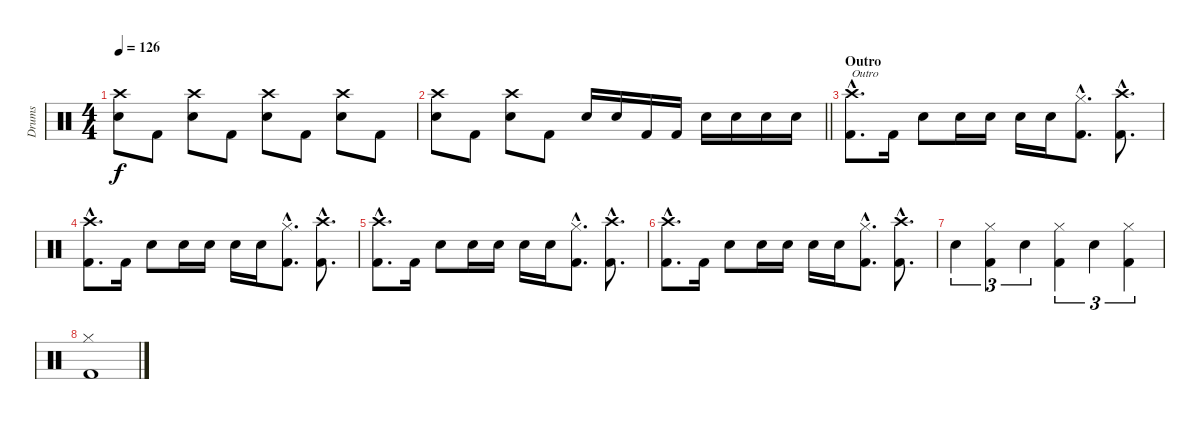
\track ("Drums" "Drums") {instrument percussion}
\staff {score}
\articulation defaults
\ts (4 4)
\tempo 126
\clef neutral
\ks c
("Crash high (hit)" "Electric Snare (hit)").8{dy f} "Kick (hit) 2".8 ("Crash high (hit)" "Electric Snare (hit)").8 "Kick (hit) 2".8 ("Crash high (hit)" "Electric Snare (hit)").8 "Kick (hit) 2".8 ("Crash high (hit)" "Electric Snare (hit)").8 "Kick (hit) 2".8 |
\barLineRight lightlight
("Crash high (hit)" "Electric Snare (hit)").8 "Kick (hit) 2".8 ("Crash high (hit)" "Electric Snare (hit)").8 "Kick (hit) 2".8 "Electric Snare (hit)".16 "Electric Snare (hit)".16 "Kick (hit) 2".16 "Kick (hit) 2".16 "Electric Snare (hit)".16 "Electric Snare (hit)".16 "Electric Snare (hit)".16 "Electric Snare (hit)".16 |
\section ("" "Outro")
("Crash high (hit)"{hac} "Kick (hit) 2"{hac}).8{d txt "Outro"} "Kick (hit) 2".16 "Electric Snare (hit)".8 "Electric Snare (hit)".16 "Electric Snare (hit)".16 "Electric Snare (hit)".16 "Electric Snare (hit)".16 ("Hi-Hat (closed)"{hac} "Kick (hit) 2"{hac}).8{d} ("Crash high (hit)"{hac} "Kick (hit) 2"{hac}).8{d} |
("Crash high (hit)"{hac} "Kick (hit) 2"{hac}).8{d} "Kick (hit) 2".16 "Electric Snare (hit)".8 "Electric Snare (hit)".16 "Electric Snare (hit)".16 "Electric Snare (hit)".16 "Electric Snare (hit)".16 ("Hi-Hat (closed)"{hac} "Kick (hit) 2"{hac}).8{d} ("Crash high (hit)"{hac} "Kick (hit) 2"{hac}).8{d} |
("Crash high (hit)"{hac} "Kick (hit) 2"{hac}).8{d} "Kick (hit) 2".16 "Electric Snare (hit)".8 "Electric Snare (hit)".16 "Electric Snare (hit)".16 "Electric Snare (hit)".16 "Electric Snare (hit)".16 ("Hi-Hat (closed)"{hac} "Kick (hit) 2"{hac}).8{d} ("Crash high (hit)"{hac} "Kick (hit) 2"{hac}).8{d} |
("Crash high (hit)"{hac} "Kick (hit) 2"{hac}).8{d} "Kick (hit) 2".16 "Electric Snare (hit)".8 "Electric Snare (hit)".16 "Electric Snare (hit)".16 "Electric Snare (hit)".16 "Electric Snare (hit)".16 ("Hi-Hat (closed)"{hac} "Kick (hit) 2"{hac}).8{d} ("Crash high (hit)"{hac} "Kick (hit) 2"{hac}).8{d} |
"Electric Snare (hit)".4{tu (3 2)} ("Hi-Hat (closed)" "Kick (hit) 2").4{tu (3 2)} "Electric Snare (hit)".4{tu (3 2)} ("Hi-Hat (closed)" "Kick (hit) 2").4{tu (3 2)} "Electric Snare (hit)".4{tu (3 2)} ("Hi-Hat (closed)" "Kick (hit) 2").4{tu (3 2)} |
("Hi-Hat (closed)" "Kick (hit) 2").1
